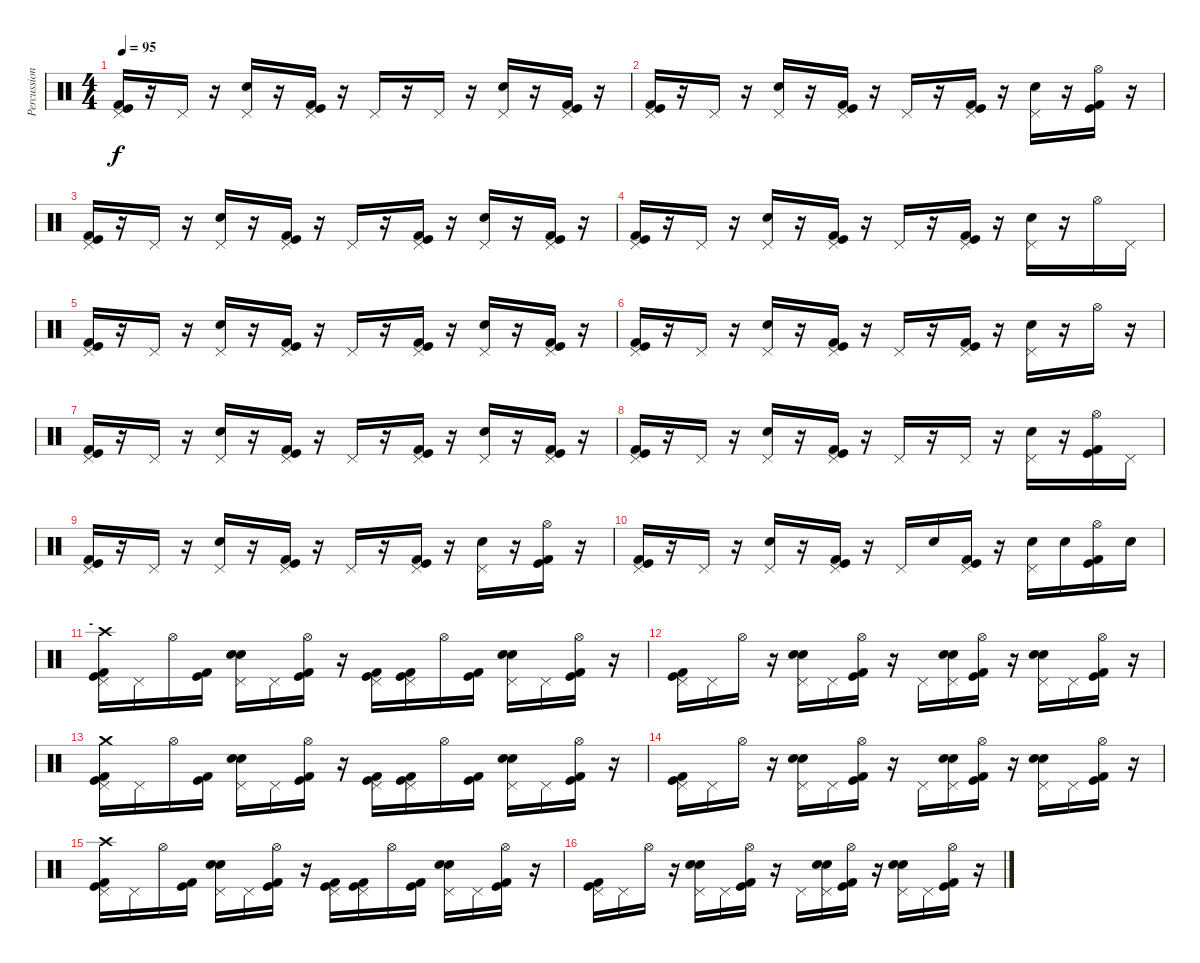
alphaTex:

\track ("Percussion" "Percussion") {instrument percussion}
\staff {score}
\articulation defaults
\ts (4 4)
\tempo 95
\clef neutral
\ks c
("Pedal Hi-Hat (hit)" "Kick (hit) 2" "Kick (hit)").16{dy f} r.16 "Pedal Hi-Hat (hit)".16 r.16 ("Pedal Hi-Hat (hit)" "Snare (hit) 2").16 r.16 ("Pedal Hi-Hat (hit)" "Kick (hit) 2" "Kick (hit)").16 r.16 "Pedal Hi-Hat (hit)".16 r.16 "Pedal Hi-Hat (hit)".16 r.16 ("Pedal Hi-Hat (hit)" "Snare (hit) 2").16 r.16 ("Pedal Hi-Hat (hit)" "Kick (hit) 2" "Kick (hit)").16 r.16 |
("Pedal Hi-Hat (hit)" "Kick (hit) 2" "Kick (hit)").16 r.16 "Pedal Hi-Hat (hit)".16 r.16 ("Pedal Hi-Hat (hit)" "Snare (hit) 2").16 r.16 ("Pedal Hi-Hat (hit)" "Kick (hit) 2" "Kick (hit)").16 r.16 "Pedal Hi-Hat (hit)".16 r.16 ("Pedal Hi-Hat (hit)" "Kick (hit) 2" "Kick (hit)").16 r.16 ("Pedal Hi-Hat (hit)" "Snare (hit) 2").16 r.16 ("Hi-Hat (open)" "Kick (hit) 2" "Kick (hit)").16 r.16 |
("Pedal Hi-Hat (hit)" "Kick (hit) 2" "Kick (hit)").16 r.16 "Pedal Hi-Hat (hit)".16 r.16 ("Pedal Hi-Hat (hit)" "Snare (hit) 2").16 r.16 ("Pedal Hi-Hat (hit)" "Kick (hit) 2" "Kick (hit)").16 r.16 "Pedal Hi-Hat (hit)".16 r.16 ("Pedal Hi-Hat (hit)" "Kick (hit) 2" "Kick (hit)").16 r.16 ("Pedal Hi-Hat (hit)" "Snare (hit) 2").16 r.16 ("Pedal Hi-Hat (hit)" "Kick (hit) 2" "Kick (hit)").16 r.16 |
("Pedal Hi-Hat (hit)" "Kick (hit) 2" "Kick (hit)").16 r.16 "Pedal Hi-Hat (hit)".16 r.16 ("Pedal Hi-Hat (hit)" "Snare (hit) 2").16 r.16 ("Pedal Hi-Hat (hit)" "Kick (hit) 2" "Kick (hit)").16 r.16 "Pedal Hi-Hat (hit)".16 r.16 ("Pedal Hi-Hat (hit)" "Kick (hit) 2" "Kick (hit)").16 r.16 ("Pedal Hi-Hat (hit)" "Snare (hit) 2").16 r.16 "Hi-Hat (open)".16 "Pedal Hi-Hat (hit)".16 |
("Pedal Hi-Hat (hit)" "Kick (hit) 2" "Kick (hit)").16 r.16 "Pedal Hi-Hat (hit)".16 r.16 ("Pedal Hi-Hat (hit)" "Snare (hit) 2").16 r.16 ("Pedal Hi-Hat (hit)" "Kick (hit) 2" "Kick (hit)").16 r.16 "Pedal Hi-Hat (hit)".16 r.16 ("Pedal Hi-Hat (hit)" "Kick (hit) 2" "Kick (hit)").16 r.16 ("Pedal Hi-Hat (hit)" "Snare (hit) 2").16 r.16 ("Pedal Hi-Hat (hit)" "Kick (hit) 2" "Kick (hit)").16 r.16 |
("Pedal Hi-Hat (hit)" "Kick (hit) 2" "Kick (hit)").16 r.16 "Pedal Hi-Hat (hit)".16 r.16 ("Pedal Hi-Hat (hit)" "Snare (hit) 2").16 r.16 ("Pedal Hi-Hat (hit)" "Kick (hit) 2" "Kick (hit)").16 r.16 "Pedal Hi-Hat (hit)".16 r.16 ("Pedal Hi-Hat (hit)" "Kick (hit) 2" "Kick (hit)").16 r.16 ("Pedal Hi-Hat (hit)" "Snare (hit) 2").16 r.16 "Hi-Hat (open)".16 r.16 |
("Pedal Hi-Hat (hit)" "Kick (hit) 2" "Kick (hit)").16 r.16 "Pedal Hi-Hat (hit)".16 r.16 ("Pedal Hi-Hat (hit)" "Snare (hit) 2").16 r.16 ("Pedal Hi-Hat (hit)" "Kick (hit) 2" "Kick (hit)").16 r.16 "Pedal Hi-Hat (hit)".16 r.16 ("Pedal Hi-Hat (hit)" "Kick (hit) 2" "Kick (hit)").16 r.16 ("Pedal Hi-Hat (hit)" "Snare (hit) 2").16 r.16 ("Pedal Hi-Hat (hit)" "Kick (hit) 2" "Kick (hit)").16 r.16 |
("Pedal Hi-Hat (hit)" "Kick (hit) 2" "Kick (hit)").16 r.16 "Pedal Hi-Hat (hit)".16 r.16 ("Pedal Hi-Hat (hit)" "Snare (hit) 2").16 r.16 ("Pedal Hi-Hat (hit)" "Kick (hit) 2" "Kick (hit)").16 r.16 "Pedal Hi-Hat (hit)".16 r.16 "Pedal Hi-Hat (hit)".16 r.16 ("Pedal Hi-Hat (hit)" "Snare (hit) 2").16 r.16 ("Hi-Hat (open)" "Kick (hit) 2" "Kick (hit)").16 "Pedal Hi-Hat (hit)".16 |
("Pedal Hi-Hat (hit)" "Kick (hit) 2" "Kick (hit)").16 r.16 "Pedal Hi-Hat (hit)".16 r.16 ("Pedal Hi-Hat (hit)" "Snare (hit) 2").16 r.16 ("Pedal Hi-Hat (hit)" "Kick (hit) 2" "Kick (hit)").16 r.16 "Pedal Hi-Hat (hit)".16 r.16 ("Pedal Hi-Hat (hit)" "Kick (hit) 2" "Kick (hit)").16 r.16 ("Pedal Hi-Hat (hit)" "Snare (hit) 2").16 r.16 ("Hi-Hat (open)" "Kick (hit) 2" "Kick (hit)").16 r.16 |
("Pedal Hi-Hat (hit)" "Kick (hit) 2" "Kick (hit)").16 r.16 "Pedal Hi-Hat (hit)".16 r.16 ("Pedal Hi-Hat (hit)" "Snare (hit) 2").16 r.16 ("Pedal Hi-Hat (hit)" "Kick (hit) 2" "Kick (hit)").16 r.16 "Pedal Hi-Hat (hit)".16 "Snare (hit) 2".16 ("Pedal Hi-Hat (hit)" "Kick (hit) 2" "Kick (hit)").16 r.16 ("Pedal Hi-Hat (hit)" "Snare (hit) 2").16 "Snare (hit) 2".16 ("Hi-Hat (open)" "Kick (hit) 2" "Kick (hit)").16 "Snare (hit) 2".16 |
\section ("" "-")
("Pedal Hi-Hat (hit)" "Crash high (hit)" "Kick (hit) 2" "Kick (hit)").16 "Pedal Hi-Hat (hit)".16 "Hi-Hat (open)".16 ("Kick (hit) 2" "Kick (hit)").16 ("Pedal Hi-Hat (hit)" "Hand Clap (hit)" "Snare (hit) 2").16 "Pedal Hi-Hat (hit)".16 ("Hi-Hat (open)" "Kick (hit) 2" "Kick (hit)").16 r.16 ("Pedal Hi-Hat (hit)" "Kick (hit) 2" "Kick (hit)").16 ("Pedal Hi-Hat (hit)" "Kick (hit) 2" "Kick (hit)").16 "Hi-Hat (open)".16 ("Kick (hit) 2" "Kick (hit)").16 ("Pedal Hi-Hat (hit)" "Hand Clap (hit)" "Snare (hit) 2").16 "Pedal Hi-Hat (hit)".16 ("Hi-Hat (open)" "Kick (hit) 2" "Kick (hit)").16 r.16 |
("Pedal Hi-Hat (hit)" "Kick (hit) 2" "Kick (hit)").16 "Pedal Hi-Hat (hit)".16 "Hi-Hat (open)".16 r.16 ("Pedal Hi-Hat (hit)" "Hand Clap (hit)" "Snare (hit) 2").16 "Pedal Hi-Hat (hit)".16 ("Hi-Hat (open)" "Kick (hit) 2" "Kick (hit)").16 r.16 "Pedal Hi-Hat (hit)".16 ("Pedal Hi-Hat (hit)" "Hand Clap (hit)" "Snare (hit) 2").16 ("Hi-Hat (open)" "Kick (hit) 2" "Kick (hit)").16 r.16 ("Pedal Hi-Hat (hit)" "Hand Clap (hit)" "Snare (hit) 2").16 "Pedal Hi-Hat (hit)".16 ("Hi-Hat (open)" "Kick (hit) 2" "Kick (hit)").16 r.16 |
("Pedal Hi-Hat (hit)" "Crash medium (hit)" "Kick (hit) 2" "Kick (hit)").16 "Pedal Hi-Hat (hit)".16 "Hi-Hat (open)".16 ("Kick (hit) 2" "Kick (hit)").16 ("Pedal Hi-Hat (hit)" "Hand Clap (hit)" "Snare (hit) 2").16 "Pedal Hi-Hat (hit)".16 ("Hi-Hat (open)" "Kick (hit) 2" "Kick (hit)").16 r.16 ("Pedal Hi-Hat (hit)" "Kick (hit) 2" "Kick (hit)").16 ("Pedal Hi-Hat (hit)" "Kick (hit) 2" "Kick (hit)").16 "Hi-Hat (open)".16 ("Kick (hit) 2" "Kick (hit)").16 ("Pedal Hi-Hat (hit)" "Hand Clap (hit)" "Snare (hit) 2").16 "Pedal Hi-Hat (hit)".16 ("Hi-Hat (open)" "Kick (hit) 2" "Kick (hit)").16 r.16 |
("Pedal Hi-Hat (hit)" "Kick (hit) 2" "Kick (hit)").16 "Pedal Hi-Hat (hit)".16 "Hi-Hat (open)".16 r.16 ("Pedal Hi-Hat (hit)" "Hand Clap (hit)" "Snare (hit) 2").16 "Pedal Hi-Hat (hit)".16 ("Hi-Hat (open)" "Kick (hit) 2" "Kick (hit)").16 r.16 "Pedal Hi-Hat (hit)".16 ("Pedal Hi-Hat (hit)" "Hand Clap (hit)" "Snare (hit) 2").16 ("Hi-Hat (open)" "Kick (hit) 2" "Kick (hit)").16 r.16 ("Pedal Hi-Hat (hit)" "Hand Clap (hit)" "Snare (hit) 2").16 "Pedal Hi-Hat (hit)".16 ("Hi-Hat (open)" "Kick (hit) 2" "Kick (hit)").16 r.16 |
("Pedal Hi-Hat (hit)" "Crash high (hit)" "Kick (hit) 2" "Kick (hit)").16 "Pedal Hi-Hat (hit)".16 "Hi-Hat (open)".16 ("Kick (hit) 2" "Kick (hit)").16 ("Pedal Hi-Hat (hit)" "Hand Clap (hit)" "Snare (hit) 2").16 "Pedal Hi-Hat (hit)".16 ("Hi-Hat (open)" "Kick (hit) 2" "Kick (hit)").16 r.16 ("Pedal Hi-Hat (hit)" "Kick (hit) 2" "Kick (hit)").16 ("Pedal Hi-Hat (hit)" "Kick (hit) 2" "Kick (hit)").16 "Hi-Hat (open)".16 ("Kick (hit) 2" "Kick (hit)").16 ("Pedal Hi-Hat (hit)" "Hand Clap (hit)" "Snare (hit) 2").16 "Pedal Hi-Hat (hit)".16 ("Hi-Hat (open)" "Kick (hit) 2" "Kick (hit)").16 r.16 |
("Pedal Hi-Hat (hit)" "Kick (hit) 2" "Kick (hit)").16 "Pedal Hi-Hat (hit)".16 "Hi-Hat (open)".16 r.16 ("Pedal Hi-Hat (hit)" "Hand Clap (hit)" "Snare (hit) 2").16 "Pedal Hi-Hat (hit)".16 ("Hi-Hat (open)" "Kick (hit) 2" "Kick (hit)").16 r.16 "Pedal Hi-Hat (hit)".16 ("Pedal Hi-Hat (hit)" "Hand Clap (hit)" "Snare (hit) 2").16 ("Hi-Hat (open)" "Kick (hit) 2" "Kick (hit)").16 r.16 ("Pedal Hi-Hat (hit)" "Hand Clap (hit)" "Snare (hit) 2").16 "Pedal Hi-Hat (hit)".16 ("Hi-Hat (open)" "Kick (hit) 2" "Kick (hit)").16 r.16
